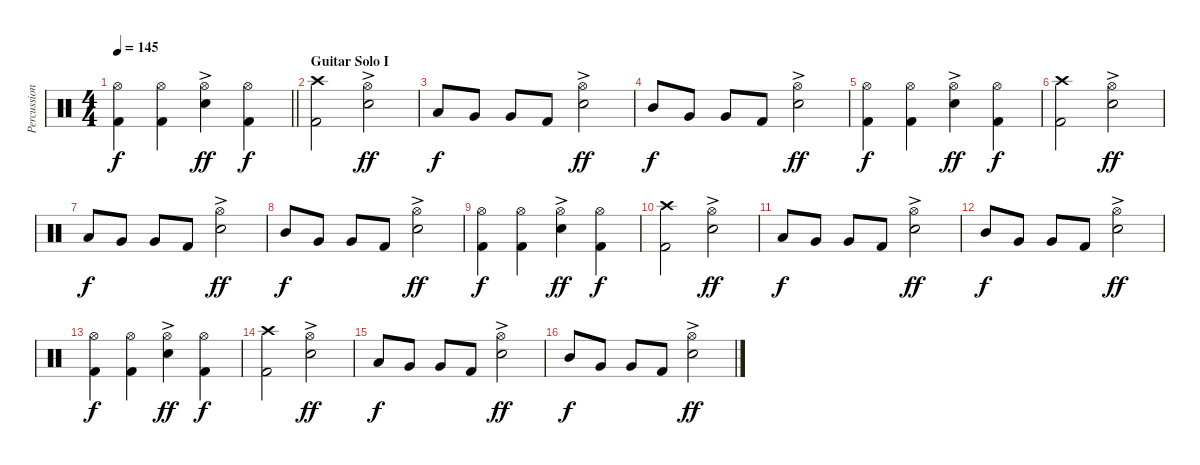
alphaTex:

\track ("Percussion" "Percussion") {instrument percussion}
\staff {score}
\articulation defaults
\ts (4 4)
\tempo 145
\clef neutral
\barLineRight lightlight
\ks c
("Hi-Hat (open)" "Kick (hit) 2").4{dy f} ("Hi-Hat (open)" "Kick (hit) 2").4 ("Hi-Hat (open)" "Electric Snare (hit)"{ac}).4{dy ff} ("Hi-Hat (open)" "Kick (hit) 2").4{dy f} |
\section ("" "Guitar Solo I")
("Crash high (hit)" "Kick (hit) 2").2 ("Hi-Hat (open)" "Electric Snare (hit)"{ac}).2{dy ff} |
"Low Tom (hit)".8{dy f} "Very Low Tom (hit)".8 "Very Low Tom (hit)".8 "Kick (hit) 2".8 ("Hi-Hat (open)" "Electric Snare (hit)"{ac}).2{dy ff} |
"Mid Tom (hit)".8{dy f} "Very Low Tom (hit)".8 "Very Low Tom (hit)".8 "Kick (hit) 2".8 ("Hi-Hat (open)" "Electric Snare (hit)"{ac}).2{dy ff} |
("Hi-Hat (open)" "Kick (hit) 2").4{dy f} ("Hi-Hat (open)" "Kick (hit) 2").4 ("Hi-Hat (open)" "Electric Snare (hit)"{ac}).4{dy ff} ("Hi-Hat (open)" "Kick (hit) 2").4{dy f} |
("Crash high (hit)" "Kick (hit) 2").2 ("Hi-Hat (open)" "Electric Snare (hit)"{ac}).2{dy ff} |
"Low Tom (hit)".8{dy f} "Very Low Tom (hit)".8 "Very Low Tom (hit)".8 "Kick (hit) 2".8 ("Hi-Hat (open)" "Electric Snare (hit)"{ac}).2{dy ff} |
"Mid Tom (hit)".8{dy f} "Very Low Tom (hit)".8 "Very Low Tom (hit)".8 "Kick (hit) 2".8 ("Hi-Hat (open)" "Electric Snare (hit)"{ac}).2{dy ff} |
("Hi-Hat (open)" "Kick (hit) 2").4{dy f} ("Hi-Hat (open)" "Kick (hit) 2").4 ("Hi-Hat (open)" "Electric Snare (hit)"{ac}).4{dy ff} ("Hi-Hat (open)" "Kick (hit) 2").4{dy f} |
("Crash high (hit)" "Kick (hit) 2").2 ("Hi-Hat (open)" "Electric Snare (hit)"{ac}).2{dy ff} |
"Low Tom (hit)".8{dy f} "Very Low Tom (hit)".8 "Very Low Tom (hit)".8 "Kick (hit) 2".8 ("Hi-Hat (open)" "Electric Snare (hit)"{ac}).2{dy ff} |
"Mid Tom (hit)".8{dy f} "Very Low Tom (hit)".8 "Very Low Tom (hit)".8 "Kick (hit) 2".8 ("Hi-Hat (open)" "Electric Snare (hit)"{ac}).2{dy ff} |
("Hi-Hat (open)" "Kick (hit) 2").4{dy f} ("Hi-Hat (open)" "Kick (hit) 2").4 ("Hi-Hat (open)" "Electric Snare (hit)"{ac}).4{dy ff} ("Hi-Hat (open)" "Kick (hit) 2").4{dy f} |
("Crash high (hit)" "Kick (hit) 2").2 ("Hi-Hat (open)" "Electric Snare (hit)"{ac}).2{dy ff} |
"Low Tom (hit)".8{dy f} "Very Low Tom (hit)".8 "Very Low Tom (hit)".8 "Kick (hit) 2".8 ("Hi-Hat (open)" "Electric Snare (hit)"{ac}).2{dy ff} |
"Mid Tom (hit)".8{dy f} "Very Low Tom (hit)".8 "Very Low Tom (hit)".8 "Kick (hit) 2".8 ("Hi-Hat (open)" "Electric Snare (hit)"{ac}).2{dy ff}
